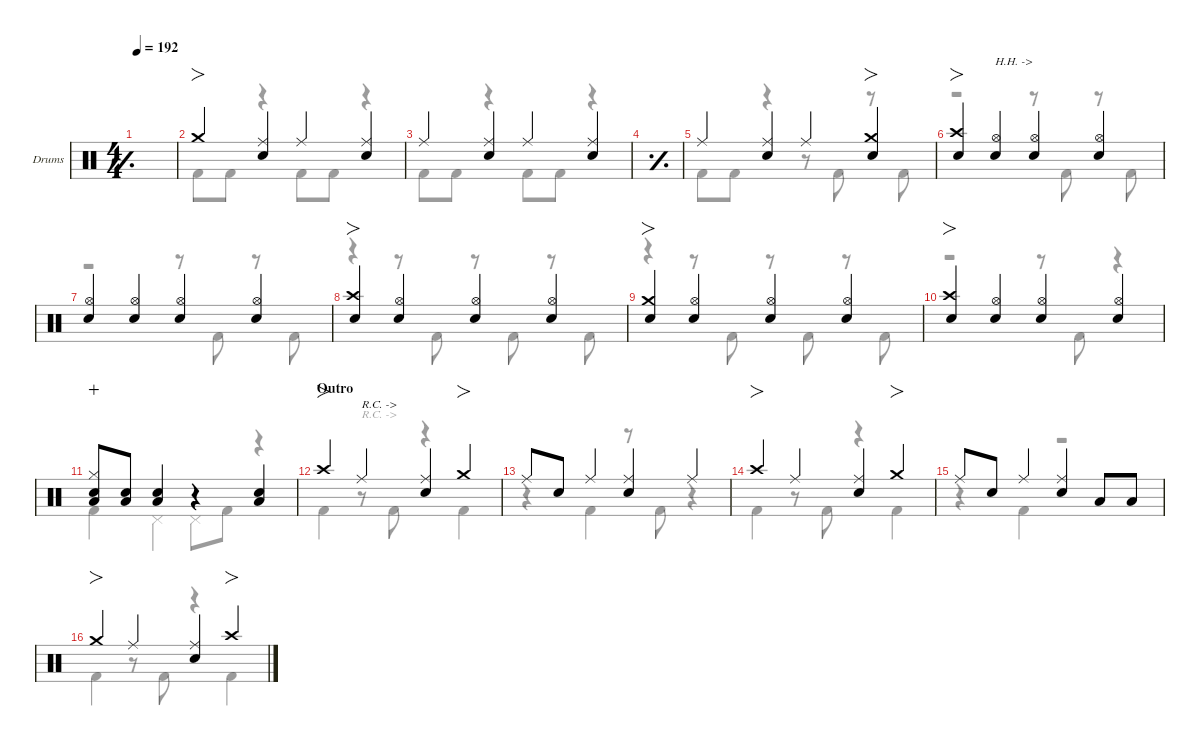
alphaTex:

\defaultSystemsLayout 4
\hideDynamics
\bracketExtendMode nobrackets
\firstSystemTrackNameOrientation horizontal
\track ("Drums" "Drums") {defaultSystemsLayout 4 instrument percussion}
\staff {score}
\articulation defaults
\voice
\ts (4 4)
\tempo 192
\clef neutral
\simile simple
\scale
0.244132
\ks c
|
\simile none
\scale
0.270437 "Crash medium (hit)".4{fo beam Up} ("Ride (middle)" "Snare (hit) 2").4{beam Up} "Ride (middle)".4{beam Up} ("Ride (middle)" "Snare (hit) 2").4{beam Up} |
\scale
0.244463 "Ride (middle)".4{beam Up} ("Ride (middle)" "Snare (hit) 2").4{beam Up} "Ride (middle)".4{beam Up} ("Ride (middle)" "Snare (hit) 2").4{beam Up} |
\simile simple
\scale
0.240968 |
\simile none
\scale
0.244132 "Ride (middle)".4{beam Up} ("Ride (middle)" "Snare (hit) 2").4{beam Up} "Ride (middle)".4{beam Up} ("Crash medium (hit)" "Snare (hit) 2").4{fo beam Up} |
\scale
0.270437 ("Crash high (hit)" "Snare (hit) 2").4{fo beam Up} ("Snare (hit) 2" "Hi-Hat (open)").4{txt "H.H. ->" beam Up} ("Hi-Hat (open)" "Snare (hit) 2").4{beam Up} ("Hi-Hat (open)" "Snare (hit) 2").4{beam Up} |
\scale
0.244463 ("Hi-Hat (open)" "Snare (hit) 2").4{beam Up} ("Hi-Hat (open)" "Snare (hit) 2").4{beam Up} ("Hi-Hat (open)" "Snare (hit) 2").4{beam Up} ("Hi-Hat (open)" "Snare (hit) 2").4{beam Up} |
\scale
0.240968 ("Crash high (hit)" "Snare (hit) 2").4{fo beam Up} ("Snare (hit) 2" "Hi-Hat (open)").4{beam Up} ("Hi-Hat (open)" "Snare (hit) 2").4{beam Up} ("Hi-Hat (open)" "Snare (hit) 2").4{beam Up} |
\scale
0.244132 ("Crash medium (hit)" "Snare (hit) 2").4{fo beam Up} ("Hi-Hat (open)" "Snare (hit) 2").4{beam Up} ("Hi-Hat (open)" "Snare (hit) 2").4{beam Up} ("Hi-Hat (open)" "Snare (hit) 2").4{beam Up} |
\scale
0.5149 ("Crash high (hit)" "Snare (hit) 2").4{fo beam Up} ("Snare (hit) 2" "Hi-Hat (open)").4{beam Up} ("Hi-Hat (open)" "Snare (hit) 2").4{beam Up} ("Hi-Hat (open)" "Snare (hit) 2").4{beam Up} |
\scale
0.4851 ("Hi-Hat (closed)" "Snare (hit) 2" "Low Tom (hit)").8{wahc beam Up} ("Low Tom (hit)" "Snare (hit) 2").8{beam Up} ("Snare (hit) 2" "Low Tom (hit)").4{beam Up} r.4{beam Up} ("Snare (hit) 2" "Low Tom (hit)").4{beam Up} |
\section ("" "Outro")
\scale
0.267605 "Crash high (hit)".4{fo beam Up} "Ride (middle)".4{txt "R.C. ->" beam Up} ("Snare (hit) 2" "Ride (middle)").4{beam Up} "Crash medium (hit)".4{fo beam Up} |
\scale
0.247295 "Ride (middle)".8{beam Up} "Snare (hit) 2".8{beam Up} "Ride (middle)".4{beam Up} ("Ride (middle)" "Snare (hit) 2").4{beam Up} "Ride (middle)".4{beam Up} |
\scale
0.240968 "Crash high (hit)".4{fo beam Up} "Ride (middle)".4{beam Up} ("Snare (hit) 2" "Ride (middle)").4{beam Up} "Crash medium (hit)".4{fo beam Up} |
\scale
0.244132 "Ride (middle)".8{beam Up} "Snare (hit) 2".8{beam Up} "Ride (middle)".4{beam Up} ("Ride (middle)" "Snare (hit) 2").4{beam Up} "Low Tom (hit)".8{beam Up} "Low Tom (hit)".8{beam Up} |
\scale
0.267605 "Crash medium (hit)".4{fo beam Up} "Ride (middle)".4{beam Up} ("Snare (hit) 2" "Ride (middle)").4{beam Up} "Crash high (hit)".4{fo beam Up}
\voice
\clef neutral
\ottava regular
\simile simple
\scale
0.244132
\ks c
|
\simile none
\scale
0.270437 "Kick (hit) 2".8{beam Down} "Kick (hit) 2".8{beam Down} r.4{beam Down} "Kick (hit) 2".8{beam Down} "Kick (hit) 2".8{beam Down} r.4{beam Down} |
\scale
0.244463 "Kick (hit) 2".8{beam Down} "Kick (hit) 2".8{beam Down} r.4{beam Down} "Kick (hit) 2".8{beam Down} "Kick (hit) 2".8{beam Down} r.4{beam Down} |
\simile simple
\scale
0.240968 |
\simile none
\scale
0.244132 "Kick (hit) 2".8{beam Down} "Kick (hit) 2".8{beam Down} r.4{beam Down} r.8{beam Down} "Kick (hit) 2".8{beam Down} r.8{beam Down} "Kick (hit) 2".8{beam Down} |
\scale
0.270437 r.2{beam Down} r.8{beam Down} "Kick (hit) 2".8{beam Down} r.8{beam Down} "Kick (hit) 2".8{beam Down} |
\scale
0.244463 r.2{beam Down} r.8{beam Down} "Kick (hit) 2".8{beam Down} r.8{beam Down} "Kick (hit) 2".8{beam Down} |
\scale
0.240968 r.4{beam Down} r.8{beam Down} "Kick (hit) 2".8{beam Down} r.8{beam Down} "Kick (hit) 2".8{beam Down} r.8{beam Down} "Kick (hit) 2".8{beam Down} |
\scale
0.244132 r.4{beam Down} r.8{beam Down} "Kick (hit) 2".8{beam Down} r.8{beam Down} "Kick (hit) 2".8{beam Down} r.8{beam Down} "Kick (hit) 2".8{beam Down} |
\scale
0.5149 r.2{beam Down} r.8{beam Down} "Kick (hit) 2".8{beam Down} r.4{beam Down} |
\scale
0.4851 "Kick (hit) 2".4{beam Down} "Pedal Hi-Hat (hit)".4{beam Down} "Pedal Hi-Hat (hit)".8{beam Down} "Kick (hit) 2".8{beam Down} r.4{beam Down} |
\scale
0.267605 "Kick (hit) 2".4{beam Down} r.8{txt "R.C. ->" beam Down} "Kick (hit) 2".8{beam Down} r.4{beam Down} "Kick (hit) 2".4{beam Down} |
\scale
0.247295 r.4{beam Down} "Kick (hit) 2".4{beam Down} r.8{beam Down} "Kick (hit) 2".8{beam Down} r.4{beam Down} |
\scale
0.240968 "Kick (hit) 2".4{beam Down} r.8{beam Down} "Kick (hit) 2".8{beam Down} r.4{beam Down} "Kick (hit) 2".4{beam Down} |
\scale
0.244132 r.4{beam Down} "Kick (hit) 2".4{beam Down} r.2{beam Down} |
\scale
0.267605 "Kick (hit) 2".4{beam Down} r.8{beam Down} "Kick (hit) 2".8{beam Down} r.4{beam Down} "Kick (hit) 2".4{beam Down}
